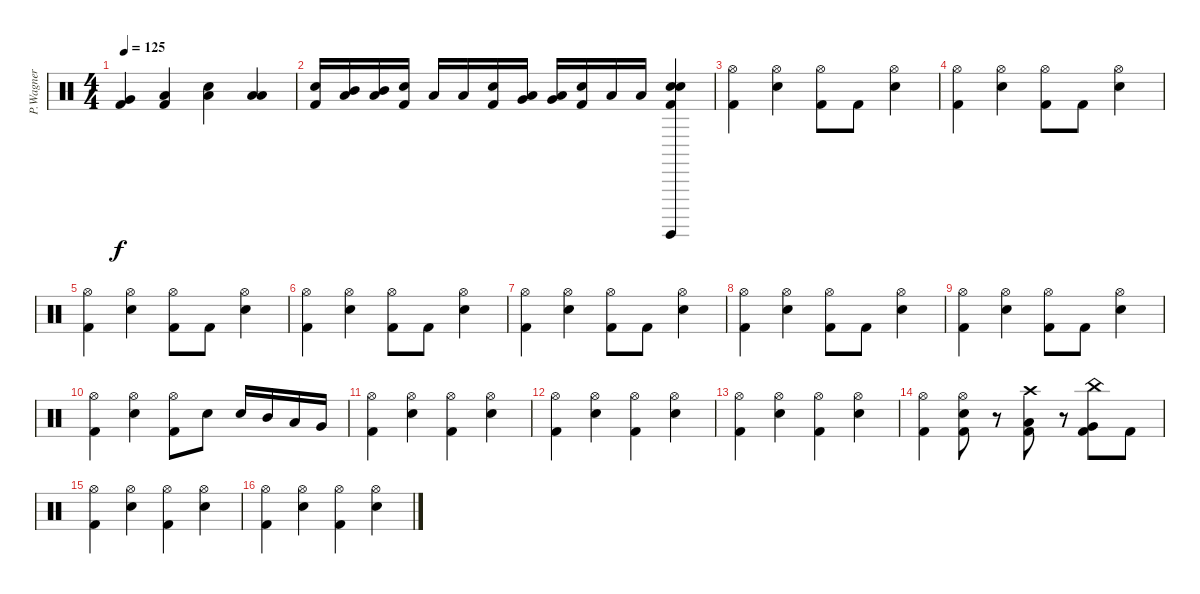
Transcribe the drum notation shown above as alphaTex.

\track ("P.Wagner" "P.Wagner") {instrument percussion}
\staff {score}
\articulation defaults
\ts (4 4)
\tempo 125
\clef neutral
\ks c
("Very Low Tom (hit)" "Kick (hit) 2").4{dy f} ("Kick (hit) 2" "Low Tom (hit)").4 ("Low Tom (hit)" "Electric Snare (hit)").4 ("Low Floor Tom (hit)" "Low Tom (hit)").4 |
("Electric Snare (hit)" "Kick (hit) 2").16 ("Low Floor Tom (hit)" "Mid Tom (hit)").16 ("Low Floor Tom (hit)" "Mid Tom (hit)").16 ("Electric Snare (hit)" "Kick (hit) 2").16 "Low Tom (hit)".16 "Low Tom (hit)".16 ("Electric Snare (hit)" "Kick (hit) 2").16 ("Low Floor Tom (hit)" "Very Low Tom (hit)").16 ("Low Floor Tom (hit)" "Very Low Tom (hit)").16 ("Electric Snare (hit)" "Kick (hit) 2").16 "Low Floor Tom (hit)".16 "Low Floor Tom (hit)".16 ("Snare (hit) 2" "Snare (hit) 2" "Kick (hit) 2" "Surdo (hit)").4 |
("Kick (hit) 2" "Hi-Hat (open)").4 ("Electric Snare (hit)" "Hi-Hat (open)").4 ("Kick (hit) 2" "Hi-Hat (open)").8 "Kick (hit) 2".8 ("Electric Snare (hit)" "Hi-Hat (open)").4 |
("Kick (hit) 2" "Hi-Hat (open)").4 ("Electric Snare (hit)" "Hi-Hat (open)").4 ("Kick (hit) 2" "Hi-Hat (open)").8 "Kick (hit) 2".8 ("Electric Snare (hit)" "Hi-Hat (open)").4 |
("Kick (hit) 2" "Hi-Hat (open)").4 ("Electric Snare (hit)" "Hi-Hat (open)").4 ("Kick (hit) 2" "Hi-Hat (open)").8 "Kick (hit) 2".8 ("Electric Snare (hit)" "Hi-Hat (open)").4 |
("Kick (hit) 2" "Hi-Hat (open)").4 ("Electric Snare (hit)" "Hi-Hat (open)").4 ("Kick (hit) 2" "Hi-Hat (open)").8 "Kick (hit) 2".8 ("Electric Snare (hit)" "Hi-Hat (open)").4 |
("Kick (hit) 2" "Hi-Hat (open)").4 ("Electric Snare (hit)" "Hi-Hat (open)").4 ("Kick (hit) 2" "Hi-Hat (open)").8 "Kick (hit) 2".8 ("Electric Snare (hit)" "Hi-Hat (open)").4 |
("Kick (hit) 2" "Hi-Hat (open)").4 ("Electric Snare (hit)" "Hi-Hat (open)").4 ("Kick (hit) 2" "Hi-Hat (open)").8 "Kick (hit) 2".8 ("Electric Snare (hit)" "Hi-Hat (open)").4 |
("Kick (hit) 2" "Hi-Hat (open)").4 ("Electric Snare (hit)" "Hi-Hat (open)").4 ("Kick (hit) 2" "Hi-Hat (open)").8 "Kick (hit) 2".8 ("Electric Snare (hit)" "Hi-Hat (open)").4 |
("Kick (hit) 2" "Hi-Hat (open)").4 ("Electric Snare (hit)" "Hi-Hat (open)").4 ("Kick (hit) 2" "Hi-Hat (open)").8 "Electric Snare (hit)".8 "Electric Snare (hit)".16 "Mid Tom (hit)".16 "Low Tom (hit)".16 "Very Low Tom (hit)".16 |
("Kick (hit) 2" "Hi-Hat (open)").4 ("Electric Snare (hit)" "Hi-Hat (open)").4 ("Kick (hit) 2" "Hi-Hat (open)").4 ("Hi-Hat (open)" "Electric Snare (hit)").4 |
("Kick (hit) 2" "Hi-Hat (open)").4 ("Electric Snare (hit)" "Hi-Hat (open)").4 ("Kick (hit) 2" "Hi-Hat (open)").4 ("Hi-Hat (open)" "Electric Snare (hit)").4 |
("Kick (hit) 2" "Hi-Hat (open)").4 ("Electric Snare (hit)" "Hi-Hat (open)").4 ("Kick (hit) 2" "Hi-Hat (open)").4 ("Hi-Hat (open)" "Electric Snare (hit)").4 |
("Kick (hit) 2" "Hi-Hat (open)").4 ("Kick (hit) 2" "Electric Snare (hit)" "Hi-Hat (open)").8 r.8 ("Kick (hit) 2" "Low Tom (hit)" "Crash high (hit)").8 r.8 ("Kick (hit) 2" "Very Low Tom (hit)" "China (hit)").8 "Kick (hit) 2".8 |
("Kick (hit) 2" "Hi-Hat (open)").4 ("Electric Snare (hit)" "Hi-Hat (open)").4 ("Kick (hit) 2" "Hi-Hat (open)").4 ("Hi-Hat (open)" "Electric Snare (hit)").4 |
("Kick (hit) 2" "Hi-Hat (open)").4 ("Electric Snare (hit)" "Hi-Hat (open)").4 ("Kick (hit) 2" "Hi-Hat (open)").4 ("Hi-Hat (open)" "Electric Snare (hit)").4
